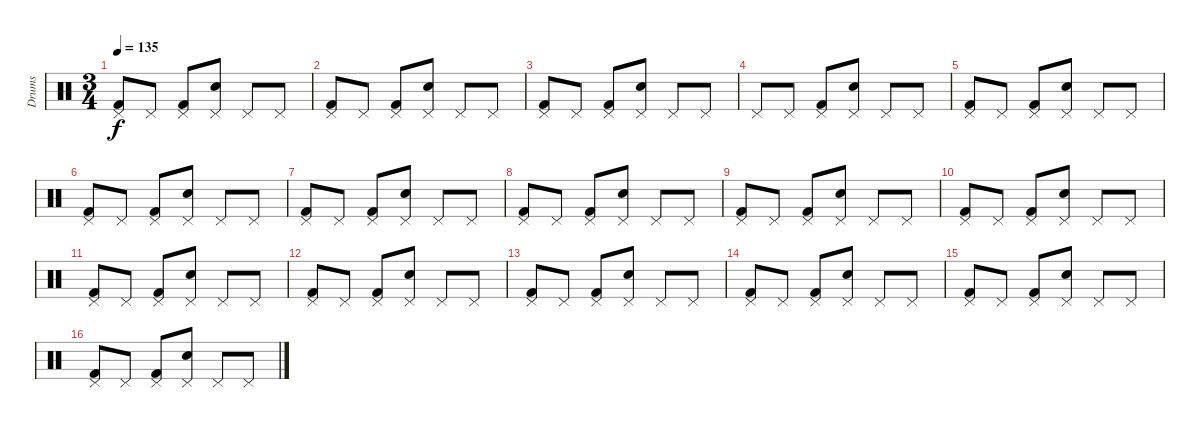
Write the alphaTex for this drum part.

\track ("Drums" "Drums") {instrument percussion}
\staff {score}
\articulation defaults
\ts (3 4)
\tempo 135
\clef neutral
\ks c
("Pedal Hi-Hat (hit)" "Kick (hit) 2").8{dy f} "Pedal Hi-Hat (hit)".8 ("Pedal Hi-Hat (hit)" "Kick (hit) 2").8 ("Pedal Hi-Hat (hit)" "Snare (hit) 2").8 "Pedal Hi-Hat (hit)".8 "Pedal Hi-Hat (hit)".8 |
("Pedal Hi-Hat (hit)" "Kick (hit) 2").8 "Pedal Hi-Hat (hit)".8 ("Pedal Hi-Hat (hit)" "Kick (hit) 2").8 ("Pedal Hi-Hat (hit)" "Snare (hit) 2").8 "Pedal Hi-Hat (hit)".8 "Pedal Hi-Hat (hit)".8 |
("Pedal Hi-Hat (hit)" "Kick (hit) 2").8 "Pedal Hi-Hat (hit)".8 ("Pedal Hi-Hat (hit)" "Kick (hit) 2").8 ("Pedal Hi-Hat (hit)" "Snare (hit) 2").8 "Pedal Hi-Hat (hit)".8 "Pedal Hi-Hat (hit)".8 |
"Pedal Hi-Hat (hit)".8 "Pedal Hi-Hat (hit)".8 ("Pedal Hi-Hat (hit)" "Kick (hit) 2").8 ("Pedal Hi-Hat (hit)" "Snare (hit) 2").8 "Pedal Hi-Hat (hit)".8 "Pedal Hi-Hat (hit)".8 |
("Pedal Hi-Hat (hit)" "Kick (hit) 2").8 "Pedal Hi-Hat (hit)".8 ("Pedal Hi-Hat (hit)" "Kick (hit) 2").8 ("Pedal Hi-Hat (hit)" "Snare (hit) 2").8 "Pedal Hi-Hat (hit)".8 "Pedal Hi-Hat (hit)".8 |
("Pedal Hi-Hat (hit)" "Kick (hit) 2").8 "Pedal Hi-Hat (hit)".8 ("Pedal Hi-Hat (hit)" "Kick (hit) 2").8 ("Pedal Hi-Hat (hit)" "Snare (hit) 2").8 "Pedal Hi-Hat (hit)".8 "Pedal Hi-Hat (hit)".8 |
("Pedal Hi-Hat (hit)" "Kick (hit) 2").8 "Pedal Hi-Hat (hit)".8 ("Pedal Hi-Hat (hit)" "Kick (hit) 2").8 ("Pedal Hi-Hat (hit)" "Snare (hit) 2").8 "Pedal Hi-Hat (hit)".8 "Pedal Hi-Hat (hit)".8 |
("Pedal Hi-Hat (hit)" "Kick (hit) 2").8 "Pedal Hi-Hat (hit)".8 ("Pedal Hi-Hat (hit)" "Kick (hit) 2").8 ("Pedal Hi-Hat (hit)" "Snare (hit) 2").8 "Pedal Hi-Hat (hit)".8 "Pedal Hi-Hat (hit)".8 |
\section ("" "")
("Pedal Hi-Hat (hit)" "Kick (hit) 2").8 "Pedal Hi-Hat (hit)".8 ("Pedal Hi-Hat (hit)" "Kick (hit) 2").8 ("Pedal Hi-Hat (hit)" "Snare (hit) 2").8 "Pedal Hi-Hat (hit)".8 "Pedal Hi-Hat (hit)".8 |
("Pedal Hi-Hat (hit)" "Kick (hit) 2").8 "Pedal Hi-Hat (hit)".8 ("Pedal Hi-Hat (hit)" "Kick (hit) 2").8 ("Pedal Hi-Hat (hit)" "Snare (hit) 2").8 "Pedal Hi-Hat (hit)".8 "Pedal Hi-Hat (hit)".8 |
("Pedal Hi-Hat (hit)" "Kick (hit) 2").8 "Pedal Hi-Hat (hit)".8 ("Pedal Hi-Hat (hit)" "Kick (hit) 2").8 ("Pedal Hi-Hat (hit)" "Snare (hit) 2").8 "Pedal Hi-Hat (hit)".8 "Pedal Hi-Hat (hit)".8 |
("Pedal Hi-Hat (hit)" "Kick (hit) 2").8 "Pedal Hi-Hat (hit)".8 ("Pedal Hi-Hat (hit)" "Kick (hit) 2").8 ("Pedal Hi-Hat (hit)" "Snare (hit) 2").8 "Pedal Hi-Hat (hit)".8 "Pedal Hi-Hat (hit)".8 |
("Pedal Hi-Hat (hit)" "Kick (hit) 2").8 "Pedal Hi-Hat (hit)".8 ("Pedal Hi-Hat (hit)" "Kick (hit) 2").8 ("Pedal Hi-Hat (hit)" "Snare (hit) 2").8 "Pedal Hi-Hat (hit)".8 "Pedal Hi-Hat (hit)".8 |
("Pedal Hi-Hat (hit)" "Kick (hit) 2").8 "Pedal Hi-Hat (hit)".8 ("Pedal Hi-Hat (hit)" "Kick (hit) 2").8 ("Pedal Hi-Hat (hit)" "Snare (hit) 2").8 "Pedal Hi-Hat (hit)".8 "Pedal Hi-Hat (hit)".8 |
("Pedal Hi-Hat (hit)" "Kick (hit) 2").8 "Pedal Hi-Hat (hit)".8 ("Pedal Hi-Hat (hit)" "Kick (hit) 2").8 ("Pedal Hi-Hat (hit)" "Snare (hit) 2").8 "Pedal Hi-Hat (hit)".8 "Pedal Hi-Hat (hit)".8 |
("Pedal Hi-Hat (hit)" "Kick (hit) 2").8 "Pedal Hi-Hat (hit)".8 ("Pedal Hi-Hat (hit)" "Kick (hit) 2").8 ("Pedal Hi-Hat (hit)" "Snare (hit) 2").8 "Pedal Hi-Hat (hit)".8 "Pedal Hi-Hat (hit)".8
